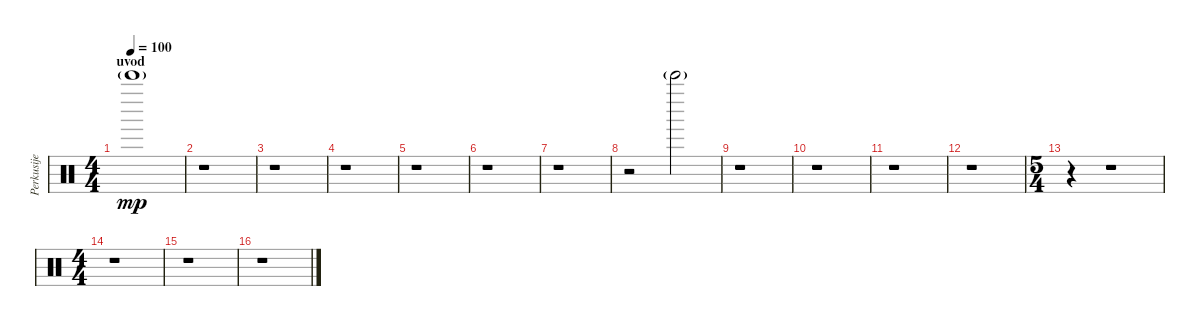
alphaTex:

\track ("Perkusije" "Perkusije") {instrument percussion}
\staff {score}
\articulation defaults
\ts (4 4)
\section ("" "uvod")
\tempo 100
\clef neutral
\ks c "Bell Tree (hit)"{g}.1{dy mp}
|
r.1 |
r.1 |
r.1 |
r.1 |
r.1 |
r.1 |
r.2 "Bell Tree (hit)"{g}.2 |
r.1 |
r.1 |
r.1 |
r.1 |
\ts (5 4)
r.4 r.1 |
\ts (4 4)
r.1 |
r.1 |
r.1
